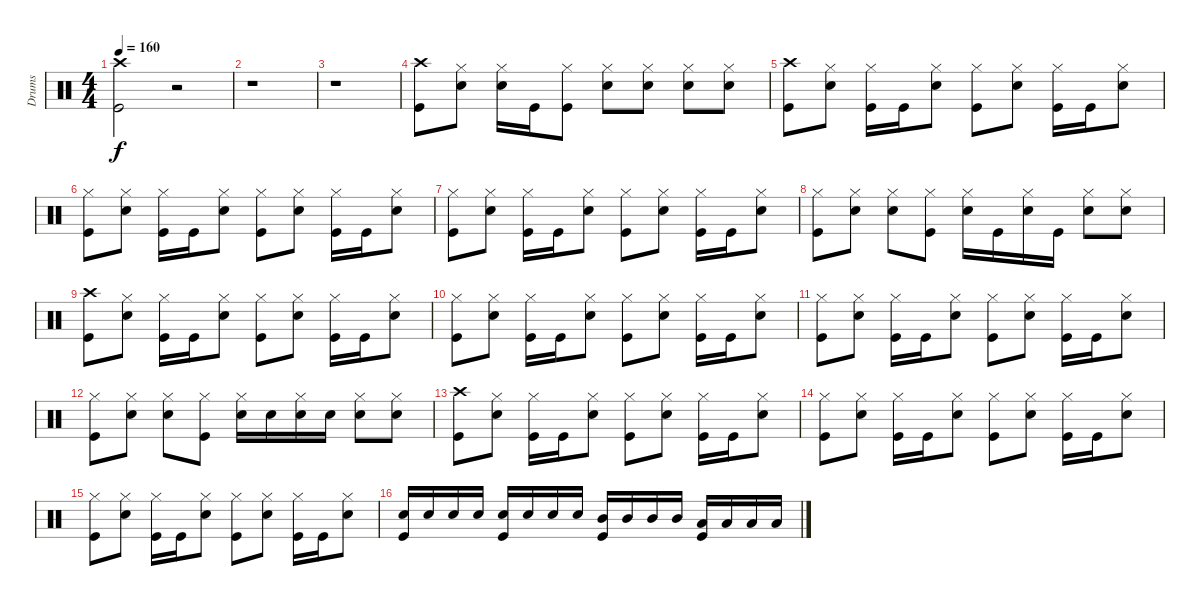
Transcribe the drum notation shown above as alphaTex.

\track ("Drums" "Drums") {instrument percussion}
\staff {score}
\articulation defaults
\ts (4 4)
\tempo 160
\clef neutral
\ks c
("Crash high (hit)" "Kick (hit)").2{dy f} r.2 |
r.1 |
r.1 |
("Crash high (hit)" "Kick (hit)").8 ("Hi-Hat (closed)" "Electric Snare (hit)").8 ("Hi-Hat (closed)" "Electric Snare (hit)").16 "Kick (hit)".16 ("Hi-Hat (closed)" "Kick (hit)").8 ("Hi-Hat (closed)" "Electric Snare (hit)").8 ("Hi-Hat (closed)" "Electric Snare (hit)").8 ("Hi-Hat (closed)" "Electric Snare (hit)").8 ("Hi-Hat (closed)" "Electric Snare (hit)").8 |
("Crash high (hit)" "Kick (hit)").8 ("Hi-Hat (closed)" "Electric Snare (hit)").8 ("Hi-Hat (closed)" "Kick (hit)").16 "Kick (hit)".16 ("Hi-Hat (closed)" "Electric Snare (hit)").8 ("Hi-Hat (closed)" "Kick (hit)").8 ("Hi-Hat (closed)" "Electric Snare (hit)").8 ("Hi-Hat (closed)" "Kick (hit)").16 "Kick (hit)".16 ("Hi-Hat (closed)" "Electric Snare (hit)").8 |
("Hi-Hat (closed)" "Kick (hit)").8 ("Hi-Hat (closed)" "Electric Snare (hit)").8 ("Hi-Hat (closed)" "Kick (hit)").16 "Kick (hit)".16 ("Hi-Hat (closed)" "Electric Snare (hit)").8 ("Hi-Hat (closed)" "Kick (hit)").8 ("Hi-Hat (closed)" "Electric Snare (hit)").8 ("Hi-Hat (closed)" "Kick (hit)").16 "Kick (hit)".16 ("Hi-Hat (closed)" "Electric Snare (hit)").8 |
("Hi-Hat (closed)" "Kick (hit)").8 ("Hi-Hat (closed)" "Electric Snare (hit)").8 ("Hi-Hat (closed)" "Kick (hit)").16 "Kick (hit)".16 ("Hi-Hat (closed)" "Electric Snare (hit)").8 ("Hi-Hat (closed)" "Kick (hit)").8 ("Hi-Hat (closed)" "Electric Snare (hit)").8 ("Hi-Hat (closed)" "Kick (hit)").16 "Kick (hit)".16 ("Hi-Hat (closed)" "Electric Snare (hit)").8 |
("Hi-Hat (closed)" "Kick (hit)").8 ("Hi-Hat (closed)" "Electric Snare (hit)").8 ("Hi-Hat (closed)" "Electric Snare (hit)").8 ("Hi-Hat (closed)" "Kick (hit)").8 ("Hi-Hat (closed)" "Electric Snare (hit)").16 "Kick (hit)".16 ("Hi-Hat (closed)" "Electric Snare (hit)").16 "Kick (hit)".16 ("Hi-Hat (closed)" "Electric Snare (hit)").8 ("Hi-Hat (closed)" "Electric Snare (hit)").8 |
("Crash high (hit)" "Kick (hit)").8 ("Hi-Hat (closed)" "Electric Snare (hit)").8 ("Hi-Hat (closed)" "Kick (hit)").16 "Kick (hit)".16 ("Hi-Hat (closed)" "Electric Snare (hit)").8 ("Hi-Hat (closed)" "Kick (hit)").8 ("Hi-Hat (closed)" "Electric Snare (hit)").8 ("Hi-Hat (closed)" "Kick (hit)").16 "Kick (hit)".16 ("Hi-Hat (closed)" "Electric Snare (hit)").8 |
("Hi-Hat (closed)" "Kick (hit)").8 ("Hi-Hat (closed)" "Electric Snare (hit)").8 ("Hi-Hat (closed)" "Kick (hit)").16 "Kick (hit)".16 ("Hi-Hat (closed)" "Electric Snare (hit)").8 ("Hi-Hat (closed)" "Kick (hit)").8 ("Hi-Hat (closed)" "Electric Snare (hit)").8 ("Hi-Hat (closed)" "Kick (hit)").16 "Kick (hit)".16 ("Hi-Hat (closed)" "Electric Snare (hit)").8 |
("Hi-Hat (closed)" "Kick (hit)").8 ("Hi-Hat (closed)" "Electric Snare (hit)").8 ("Hi-Hat (closed)" "Kick (hit)").16 "Kick (hit)".16 ("Hi-Hat (closed)" "Electric Snare (hit)").8 ("Hi-Hat (closed)" "Kick (hit)").8 ("Hi-Hat (closed)" "Electric Snare (hit)").8 ("Hi-Hat (closed)" "Kick (hit)").16 "Kick (hit)".16 ("Hi-Hat (closed)" "Electric Snare (hit)").8 |
("Hi-Hat (closed)" "Kick (hit)").8 ("Hi-Hat (closed)" "Electric Snare (hit)").8 ("Hi-Hat (closed)" "Electric Snare (hit)").8 ("Hi-Hat (closed)" "Kick (hit)").8 ("Hi-Hat (closed)" "Electric Snare (hit)").16 "Electric Snare (hit)".16 ("Hi-Hat (closed)" "Electric Snare (hit)").16 "Electric Snare (hit)".16 ("Hi-Hat (closed)" "Electric Snare (hit)").8 ("Hi-Hat (closed)" "Electric Snare (hit)").8 |
("Crash high (hit)" "Kick (hit)").8 ("Hi-Hat (closed)" "Electric Snare (hit)").8 ("Hi-Hat (closed)" "Kick (hit)").16 "Kick (hit)".16 ("Hi-Hat (closed)" "Electric Snare (hit)").8 ("Hi-Hat (closed)" "Kick (hit)").8 ("Hi-Hat (closed)" "Electric Snare (hit)").8 ("Hi-Hat (closed)" "Kick (hit)").16 "Kick (hit)".16 ("Hi-Hat (closed)" "Electric Snare (hit)").8 |
("Hi-Hat (closed)" "Kick (hit)").8 ("Hi-Hat (closed)" "Electric Snare (hit)").8 ("Hi-Hat (closed)" "Kick (hit)").16 "Kick (hit)".16 ("Hi-Hat (closed)" "Electric Snare (hit)").8 ("Hi-Hat (closed)" "Kick (hit)").8 ("Hi-Hat (closed)" "Electric Snare (hit)").8 ("Hi-Hat (closed)" "Kick (hit)").16 "Kick (hit)".16 ("Hi-Hat (closed)" "Electric Snare (hit)").8 |
("Hi-Hat (closed)" "Kick (hit)").8 ("Hi-Hat (closed)" "Electric Snare (hit)").8 ("Hi-Hat (closed)" "Kick (hit)").16 "Kick (hit)".16 ("Hi-Hat (closed)" "Electric Snare (hit)").8 ("Hi-Hat (closed)" "Kick (hit)").8 ("Hi-Hat (closed)" "Electric Snare (hit)").8 ("Hi-Hat (closed)" "Kick (hit)").16 "Kick (hit)".16 ("Hi-Hat (closed)" "Electric Snare (hit)").8 |
("Electric Snare (hit)" "Kick (hit)").16 "Electric Snare (hit)".16 "Electric Snare (hit)".16 "Electric Snare (hit)".16 ("Electric Snare (hit)" "Kick (hit)").16 "Electric Snare (hit)".16 "Electric Snare (hit)".16 "Electric Snare (hit)".16 ("Mid Tom (hit)" "Kick (hit)").16 "Mid Tom (hit)".16 "Mid Tom (hit)".16 "Mid Tom (hit)".16 ("Low Tom (hit)" "Kick (hit)").16 "Low Tom (hit)".16 "Low Tom (hit)".16 "Low Tom (hit)".16
